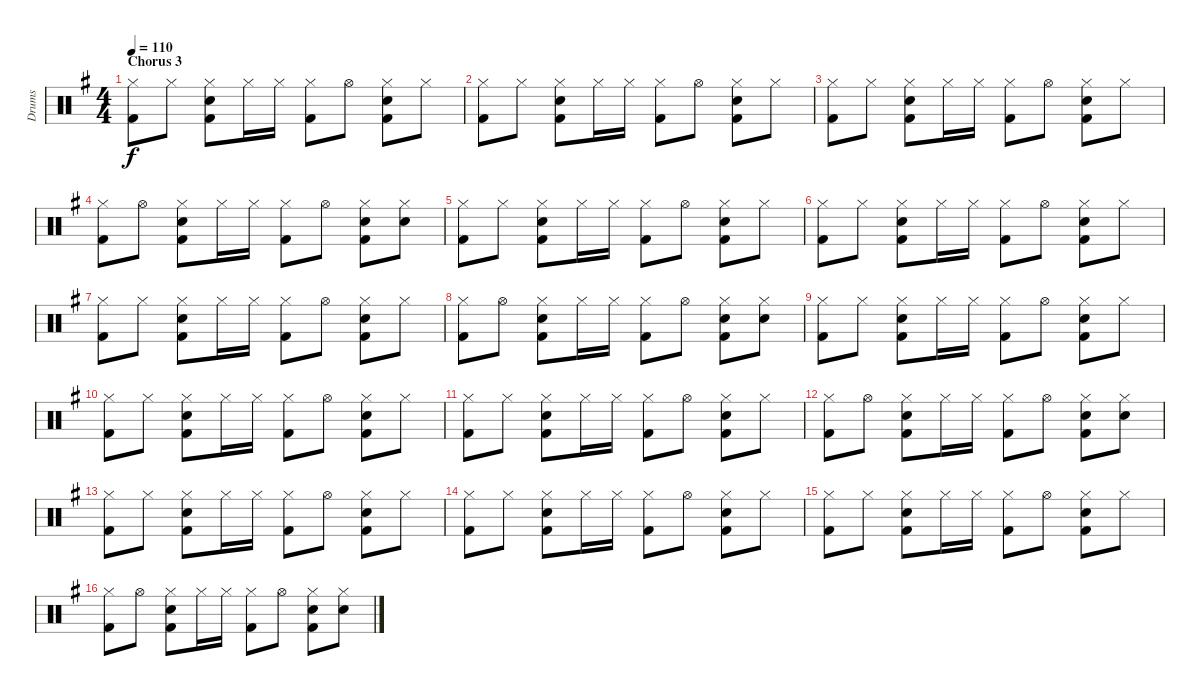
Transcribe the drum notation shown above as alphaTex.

\track ("Drums" "Drums") {instrument percussion}
\staff {score}
\articulation defaults
\ts (4 4)
\section ("" "Chorus 3")
\tempo 110
\clef neutral
\ks eminor
("Hi-Hat (closed)" "Kick (hit) 2").8{dy f} "Hi-Hat (closed)".8 ("Hi-Hat (closed)" "Snare (hit) 2" "Kick (hit) 2").8 "Hi-Hat (closed)".16 "Hi-Hat (closed)".16 ("Hi-Hat (closed)" "Kick (hit) 2").8 "Hi-Hat (open)".8 ("Hi-Hat (closed)" "Snare (hit) 2" "Kick (hit) 2").8 "Hi-Hat (closed)".8 |
("Hi-Hat (closed)" "Kick (hit) 2").8 "Hi-Hat (closed)".8 ("Hi-Hat (closed)" "Snare (hit) 2" "Kick (hit) 2").8 "Hi-Hat (closed)".16 "Hi-Hat (closed)".16 ("Hi-Hat (closed)" "Kick (hit) 2").8 "Hi-Hat (open)".8 ("Hi-Hat (closed)" "Snare (hit) 2" "Kick (hit) 2").8 "Hi-Hat (closed)".8 |
("Hi-Hat (closed)" "Kick (hit) 2").8 "Hi-Hat (closed)".8 ("Hi-Hat (closed)" "Snare (hit) 2" "Kick (hit) 2").8 "Hi-Hat (closed)".16 "Hi-Hat (closed)".16 ("Hi-Hat (closed)" "Kick (hit) 2").8 "Hi-Hat (open)".8 ("Hi-Hat (closed)" "Snare (hit) 2" "Kick (hit) 2").8 "Hi-Hat (closed)".8 |
("Hi-Hat (closed)" "Kick (hit) 2").8 "Hi-Hat (open)".8 ("Hi-Hat (closed)" "Snare (hit) 2" "Kick (hit) 2").8 "Hi-Hat (closed)".16 "Hi-Hat (closed)".16 ("Hi-Hat (closed)" "Kick (hit) 2").8 "Hi-Hat (open)".8 ("Hi-Hat (closed)" "Snare (hit) 2" "Kick (hit) 2").8 ("Hi-Hat (closed)" "Snare (hit) 2").8 |
("Hi-Hat (closed)" "Kick (hit) 2").8 "Hi-Hat (closed)".8 ("Hi-Hat (closed)" "Snare (hit) 2" "Kick (hit) 2").8 "Hi-Hat (closed)".16 "Hi-Hat (closed)".16 ("Hi-Hat (closed)" "Kick (hit) 2").8 "Hi-Hat (open)".8 ("Hi-Hat (closed)" "Snare (hit) 2" "Kick (hit) 2").8 "Hi-Hat (closed)".8 |
("Hi-Hat (closed)" "Kick (hit) 2").8 "Hi-Hat (closed)".8 ("Hi-Hat (closed)" "Snare (hit) 2" "Kick (hit) 2").8 "Hi-Hat (closed)".16 "Hi-Hat (closed)".16 ("Hi-Hat (closed)" "Kick (hit) 2").8 "Hi-Hat (open)".8 ("Hi-Hat (closed)" "Snare (hit) 2" "Kick (hit) 2").8 "Hi-Hat (closed)".8 |
("Hi-Hat (closed)" "Kick (hit) 2").8 "Hi-Hat (closed)".8 ("Hi-Hat (closed)" "Snare (hit) 2" "Kick (hit) 2").8 "Hi-Hat (closed)".16 "Hi-Hat (closed)".16 ("Hi-Hat (closed)" "Kick (hit) 2").8 "Hi-Hat (open)".8 ("Hi-Hat (closed)" "Snare (hit) 2" "Kick (hit) 2").8 "Hi-Hat (closed)".8 |
("Hi-Hat (closed)" "Kick (hit) 2").8 "Hi-Hat (open)".8 ("Hi-Hat (closed)" "Snare (hit) 2" "Kick (hit) 2").8 "Hi-Hat (closed)".16 "Hi-Hat (closed)".16 ("Hi-Hat (closed)" "Kick (hit) 2").8 "Hi-Hat (open)".8 ("Hi-Hat (closed)" "Snare (hit) 2" "Kick (hit) 2").8 ("Hi-Hat (closed)" "Snare (hit) 2").8 |
("Hi-Hat (closed)" "Kick (hit) 2").8 "Hi-Hat (closed)".8 ("Hi-Hat (closed)" "Snare (hit) 2" "Kick (hit) 2").8 "Hi-Hat (closed)".16 "Hi-Hat (closed)".16 ("Hi-Hat (closed)" "Kick (hit) 2").8 "Hi-Hat (open)".8 ("Hi-Hat (closed)" "Snare (hit) 2" "Kick (hit) 2").8 "Hi-Hat (closed)".8 |
("Hi-Hat (closed)" "Kick (hit) 2").8 "Hi-Hat (closed)".8 ("Hi-Hat (closed)" "Snare (hit) 2" "Kick (hit) 2").8 "Hi-Hat (closed)".16 "Hi-Hat (closed)".16 ("Hi-Hat (closed)" "Kick (hit) 2").8 "Hi-Hat (open)".8 ("Hi-Hat (closed)" "Snare (hit) 2" "Kick (hit) 2").8 "Hi-Hat (closed)".8 |
("Hi-Hat (closed)" "Kick (hit) 2").8 "Hi-Hat (closed)".8 ("Hi-Hat (closed)" "Snare (hit) 2" "Kick (hit) 2").8 "Hi-Hat (closed)".16 "Hi-Hat (closed)".16 ("Hi-Hat (closed)" "Kick (hit) 2").8 "Hi-Hat (open)".8 ("Hi-Hat (closed)" "Snare (hit) 2" "Kick (hit) 2").8 "Hi-Hat (closed)".8 |
("Hi-Hat (closed)" "Kick (hit) 2").8 "Hi-Hat (open)".8 ("Hi-Hat (closed)" "Snare (hit) 2" "Kick (hit) 2").8 "Hi-Hat (closed)".16 "Hi-Hat (closed)".16 ("Hi-Hat (closed)" "Kick (hit) 2").8 "Hi-Hat (open)".8 ("Hi-Hat (closed)" "Snare (hit) 2" "Kick (hit) 2").8 ("Hi-Hat (closed)" "Snare (hit) 2").8 |
("Hi-Hat (closed)" "Kick (hit) 2").8 "Hi-Hat (closed)".8 ("Hi-Hat (closed)" "Snare (hit) 2" "Kick (hit) 2").8 "Hi-Hat (closed)".16 "Hi-Hat (closed)".16 ("Hi-Hat (closed)" "Kick (hit) 2").8 "Hi-Hat (open)".8 ("Hi-Hat (closed)" "Snare (hit) 2" "Kick (hit) 2").8 "Hi-Hat (closed)".8 |
("Hi-Hat (closed)" "Kick (hit) 2").8 "Hi-Hat (closed)".8 ("Hi-Hat (closed)" "Snare (hit) 2" "Kick (hit) 2").8 "Hi-Hat (closed)".16 "Hi-Hat (closed)".16 ("Hi-Hat (closed)" "Kick (hit) 2").8 "Hi-Hat (open)".8 ("Hi-Hat (closed)" "Snare (hit) 2" "Kick (hit) 2").8 "Hi-Hat (closed)".8 |
("Hi-Hat (closed)" "Kick (hit) 2").8 "Hi-Hat (closed)".8 ("Hi-Hat (closed)" "Snare (hit) 2" "Kick (hit) 2").8 "Hi-Hat (closed)".16 "Hi-Hat (closed)".16 ("Hi-Hat (closed)" "Kick (hit) 2").8 "Hi-Hat (open)".8 ("Hi-Hat (closed)" "Snare (hit) 2" "Kick (hit) 2").8 "Hi-Hat (closed)".8 |
("Hi-Hat (closed)" "Kick (hit) 2").8 "Hi-Hat (open)".8 ("Hi-Hat (closed)" "Snare (hit) 2" "Kick (hit) 2").8 "Hi-Hat (closed)".16 "Hi-Hat (closed)".16 ("Hi-Hat (closed)" "Kick (hit) 2").8 "Hi-Hat (open)".8 ("Hi-Hat (closed)" "Snare (hit) 2" "Kick (hit) 2").8 ("Hi-Hat (closed)" "Snare (hit) 2").8
